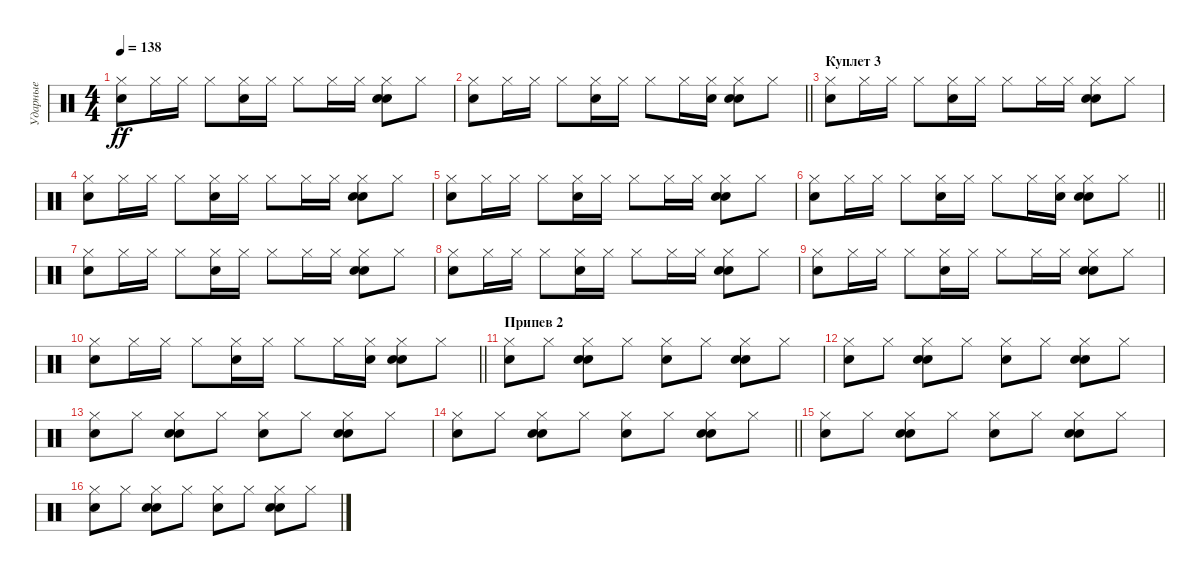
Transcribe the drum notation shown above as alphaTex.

\track ("Ударные" "Ударные") {instrument percussion}
\staff {score}
\articulation defaults
\ts (4 4)
\tempo 138
\clef neutral
\ks c
("Hi-Hat (closed)" "Snare (hit) 2").8{dy ff} "Hi-Hat (closed)".16 "Hi-Hat (closed)".16 "Hi-Hat (closed)".8 ("Hi-Hat (closed)" "Snare (hit) 2").16 "Hi-Hat (closed)".16 "Hi-Hat (closed)".8 "Hi-Hat (closed)".16 "Hi-Hat (closed)".16 ("Hi-Hat (closed)" "Snare (hit) 2" "Electric Snare (hit)").8 "Hi-Hat (closed)".8 |
\barLineRight lightlight
("Hi-Hat (closed)" "Snare (hit) 2").8 "Hi-Hat (closed)".16 "Hi-Hat (closed)".16 "Hi-Hat (closed)".8 ("Hi-Hat (closed)" "Snare (hit) 2").16 "Hi-Hat (closed)".16 "Hi-Hat (closed)".8 "Hi-Hat (closed)".16 ("Hi-Hat (closed)" "Electric Snare (hit)").16 ("Hi-Hat (closed)" "Snare (hit) 2" "Electric Snare (hit)").8 "Hi-Hat (closed)".8 |
\section ("" "Куплет 3")
("Hi-Hat (closed)" "Snare (hit) 2").8 "Hi-Hat (closed)".16 "Hi-Hat (closed)".16 "Hi-Hat (closed)".8 ("Hi-Hat (closed)" "Snare (hit) 2").16 "Hi-Hat (closed)".16 "Hi-Hat (closed)".8 "Hi-Hat (closed)".16 "Hi-Hat (closed)".16 ("Hi-Hat (closed)" "Snare (hit) 2" "Electric Snare (hit)").8 "Hi-Hat (closed)".8 |
("Hi-Hat (closed)" "Snare (hit) 2").8 "Hi-Hat (closed)".16 "Hi-Hat (closed)".16 "Hi-Hat (closed)".8 ("Hi-Hat (closed)" "Snare (hit) 2").16 "Hi-Hat (closed)".16 "Hi-Hat (closed)".8 "Hi-Hat (closed)".16 "Hi-Hat (closed)".16 ("Hi-Hat (closed)" "Snare (hit) 2" "Electric Snare (hit)").8 "Hi-Hat (closed)".8 |
("Hi-Hat (closed)" "Snare (hit) 2").8 "Hi-Hat (closed)".16 "Hi-Hat (closed)".16 "Hi-Hat (closed)".8 ("Hi-Hat (closed)" "Snare (hit) 2").16 "Hi-Hat (closed)".16 "Hi-Hat (closed)".8 "Hi-Hat (closed)".16 "Hi-Hat (closed)".16 ("Hi-Hat (closed)" "Snare (hit) 2" "Electric Snare (hit)").8 "Hi-Hat (closed)".8 |
\barLineRight lightlight
("Hi-Hat (closed)" "Snare (hit) 2").8 "Hi-Hat (closed)".16 "Hi-Hat (closed)".16 "Hi-Hat (closed)".8 ("Hi-Hat (closed)" "Snare (hit) 2").16 "Hi-Hat (closed)".16 "Hi-Hat (closed)".8 "Hi-Hat (closed)".16 ("Hi-Hat (closed)" "Electric Snare (hit)").16 ("Hi-Hat (closed)" "Snare (hit) 2" "Electric Snare (hit)").8 "Hi-Hat (closed)".8 |
("Hi-Hat (closed)" "Snare (hit) 2").8 "Hi-Hat (closed)".16 "Hi-Hat (closed)".16 "Hi-Hat (closed)".8 ("Hi-Hat (closed)" "Snare (hit) 2").16 "Hi-Hat (closed)".16 "Hi-Hat (closed)".8 "Hi-Hat (closed)".16 "Hi-Hat (closed)".16 ("Hi-Hat (closed)" "Snare (hit) 2" "Electric Snare (hit)").8 "Hi-Hat (closed)".8 |
("Hi-Hat (closed)" "Snare (hit) 2").8 "Hi-Hat (closed)".16 "Hi-Hat (closed)".16 "Hi-Hat (closed)".8 ("Hi-Hat (closed)" "Snare (hit) 2").16 "Hi-Hat (closed)".16 "Hi-Hat (closed)".8 "Hi-Hat (closed)".16 "Hi-Hat (closed)".16 ("Hi-Hat (closed)" "Snare (hit) 2" "Electric Snare (hit)").8 "Hi-Hat (closed)".8 |
("Hi-Hat (closed)" "Snare (hit) 2").8 "Hi-Hat (closed)".16 "Hi-Hat (closed)".16 "Hi-Hat (closed)".8 ("Hi-Hat (closed)" "Snare (hit) 2").16 "Hi-Hat (closed)".16 "Hi-Hat (closed)".8 "Hi-Hat (closed)".16 "Hi-Hat (closed)".16 ("Hi-Hat (closed)" "Snare (hit) 2" "Electric Snare (hit)").8 "Hi-Hat (closed)".8 |
\barLineRight lightlight
("Hi-Hat (closed)" "Snare (hit) 2").8 "Hi-Hat (closed)".16 "Hi-Hat (closed)".16 "Hi-Hat (closed)".8 ("Hi-Hat (closed)" "Snare (hit) 2").16 "Hi-Hat (closed)".16 "Hi-Hat (closed)".8 "Hi-Hat (closed)".16 ("Hi-Hat (closed)" "Electric Snare (hit)").16 ("Hi-Hat (closed)" "Snare (hit) 2" "Electric Snare (hit)").8 "Hi-Hat (closed)".8 |
\section ("" "Припев 2")
("Hi-Hat (closed)" "Snare (hit) 2").8 "Hi-Hat (closed)".8 ("Hi-Hat (closed)" "Snare (hit) 2" "Electric Snare (hit)").8 "Hi-Hat (closed)".8 ("Hi-Hat (closed)" "Snare (hit) 2").8 "Hi-Hat (closed)".8 ("Hi-Hat (closed)" "Snare (hit) 2" "Electric Snare (hit)").8 "Hi-Hat (closed)".8 |
("Hi-Hat (closed)" "Snare (hit) 2").8 "Hi-Hat (closed)".8 ("Hi-Hat (closed)" "Snare (hit) 2" "Electric Snare (hit)").8 "Hi-Hat (closed)".8 ("Hi-Hat (closed)" "Snare (hit) 2").8 "Hi-Hat (closed)".8 ("Hi-Hat (closed)" "Snare (hit) 2" "Electric Snare (hit)").8 "Hi-Hat (closed)".8 |
("Hi-Hat (closed)" "Snare (hit) 2").8 "Hi-Hat (closed)".8 ("Hi-Hat (closed)" "Snare (hit) 2" "Electric Snare (hit)").8 "Hi-Hat (closed)".8 ("Hi-Hat (closed)" "Snare (hit) 2").8 "Hi-Hat (closed)".8 ("Hi-Hat (closed)" "Snare (hit) 2" "Electric Snare (hit)").8 "Hi-Hat (closed)".8 |
\barLineRight lightlight
("Hi-Hat (closed)" "Snare (hit) 2").8 "Hi-Hat (closed)".8 ("Hi-Hat (closed)" "Snare (hit) 2" "Electric Snare (hit)").8 "Hi-Hat (closed)".8 ("Hi-Hat (closed)" "Snare (hit) 2").8 "Hi-Hat (closed)".8 ("Hi-Hat (closed)" "Snare (hit) 2" "Electric Snare (hit)").8 "Hi-Hat (closed)".8 |
("Hi-Hat (closed)" "Snare (hit) 2").8 "Hi-Hat (closed)".8 ("Hi-Hat (closed)" "Snare (hit) 2" "Electric Snare (hit)").8 "Hi-Hat (closed)".8 ("Hi-Hat (closed)" "Snare (hit) 2").8 "Hi-Hat (closed)".8 ("Hi-Hat (closed)" "Snare (hit) 2" "Electric Snare (hit)").8 "Hi-Hat (closed)".8 |
("Hi-Hat (closed)" "Snare (hit) 2").8 "Hi-Hat (closed)".8 ("Hi-Hat (closed)" "Snare (hit) 2" "Electric Snare (hit)").8 "Hi-Hat (closed)".8 ("Hi-Hat (closed)" "Snare (hit) 2").8 "Hi-Hat (closed)".8 ("Hi-Hat (closed)" "Snare (hit) 2" "Electric Snare (hit)").8 "Hi-Hat (closed)".8
